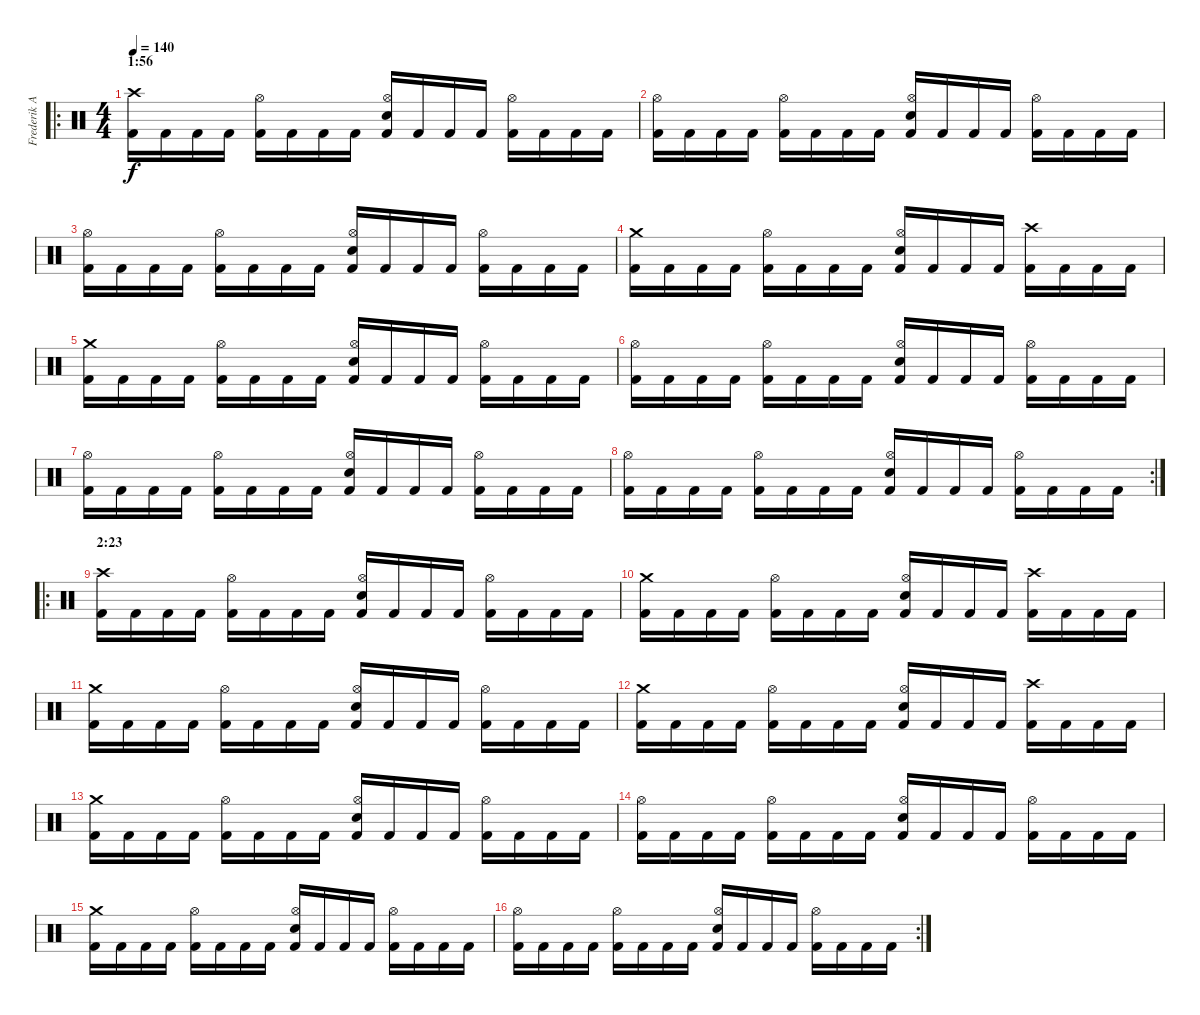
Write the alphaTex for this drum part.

\track ("Frederik Anderson" "Frederik A") {instrument percussion}
\staff {score}
\articulation defaults
\ro
\ts (4 4)
\section ("" "1:56")
\tempo 140
\clef neutral
\ks c
("Crash high (hit)" "Kick (hit) 2").16{dy f} "Kick (hit) 2".16 "Kick (hit) 2".16 "Kick (hit) 2".16 ("Hi-Hat (open)" "Kick (hit) 2").16 "Kick (hit) 2".16 "Kick (hit) 2".16 "Kick (hit) 2".16 ("Hi-Hat (open)" "Electric Snare (hit)" "Kick (hit) 2").16 "Kick (hit) 2".16 "Kick (hit) 2".16 "Kick (hit) 2".16 ("Hi-Hat (open)" "Kick (hit) 2").16 "Kick (hit) 2".16 "Kick (hit) 2".16 "Kick (hit) 2".16 |
("Hi-Hat (open)" "Kick (hit) 2").16 "Kick (hit) 2".16 "Kick (hit) 2".16 "Kick (hit) 2".16 ("Hi-Hat (open)" "Kick (hit) 2").16 "Kick (hit) 2".16 "Kick (hit) 2".16 "Kick (hit) 2".16 ("Hi-Hat (open)" "Electric Snare (hit)" "Kick (hit) 2").16 "Kick (hit) 2".16 "Kick (hit) 2".16 "Kick (hit) 2".16 ("Hi-Hat (open)" "Kick (hit) 2").16 "Kick (hit) 2".16 "Kick (hit) 2".16 "Kick (hit) 2".16 |
("Hi-Hat (open)" "Kick (hit) 2").16 "Kick (hit) 2".16 "Kick (hit) 2".16 "Kick (hit) 2".16 ("Hi-Hat (open)" "Kick (hit) 2").16 "Kick (hit) 2".16 "Kick (hit) 2".16 "Kick (hit) 2".16 ("Hi-Hat (open)" "Electric Snare (hit)" "Kick (hit) 2").16 "Kick (hit) 2".16 "Kick (hit) 2".16 "Kick (hit) 2".16 ("Hi-Hat (open)" "Kick (hit) 2").16 "Kick (hit) 2".16 "Kick (hit) 2".16 "Kick (hit) 2".16 |
("Crash medium (hit)" "Kick (hit) 2").16 "Kick (hit) 2".16 "Kick (hit) 2".16 "Kick (hit) 2".16 ("Hi-Hat (open)" "Kick (hit) 2").16 "Kick (hit) 2".16 "Kick (hit) 2".16 "Kick (hit) 2".16 ("Hi-Hat (open)" "Electric Snare (hit)" "Kick (hit) 2").16 "Kick (hit) 2".16 "Kick (hit) 2".16 "Kick (hit) 2".16 ("Crash high (hit)" "Kick (hit) 2").16 "Kick (hit) 2".16 "Kick (hit) 2".16 "Kick (hit) 2".16 |
("Crash medium (hit)" "Kick (hit) 2").16 "Kick (hit) 2".16 "Kick (hit) 2".16 "Kick (hit) 2".16 ("Hi-Hat (open)" "Kick (hit) 2").16 "Kick (hit) 2".16 "Kick (hit) 2".16 "Kick (hit) 2".16 ("Hi-Hat (open)" "Electric Snare (hit)" "Kick (hit) 2").16 "Kick (hit) 2".16 "Kick (hit) 2".16 "Kick (hit) 2".16 ("Hi-Hat (open)" "Kick (hit) 2").16 "Kick (hit) 2".16 "Kick (hit) 2".16 "Kick (hit) 2".16 |
("Hi-Hat (open)" "Kick (hit) 2").16 "Kick (hit) 2".16 "Kick (hit) 2".16 "Kick (hit) 2".16 ("Hi-Hat (open)" "Kick (hit) 2").16 "Kick (hit) 2".16 "Kick (hit) 2".16 "Kick (hit) 2".16 ("Hi-Hat (open)" "Electric Snare (hit)" "Kick (hit) 2").16 "Kick (hit) 2".16 "Kick (hit) 2".16 "Kick (hit) 2".16 ("Hi-Hat (open)" "Kick (hit) 2").16 "Kick (hit) 2".16 "Kick (hit) 2".16 "Kick (hit) 2".16 |
("Hi-Hat (open)" "Kick (hit) 2").16 "Kick (hit) 2".16 "Kick (hit) 2".16 "Kick (hit) 2".16 ("Hi-Hat (open)" "Kick (hit) 2").16 "Kick (hit) 2".16 "Kick (hit) 2".16 "Kick (hit) 2".16 ("Hi-Hat (open)" "Electric Snare (hit)" "Kick (hit) 2").16 "Kick (hit) 2".16 "Kick (hit) 2".16 "Kick (hit) 2".16 ("Hi-Hat (open)" "Kick (hit) 2").16 "Kick (hit) 2".16 "Kick (hit) 2".16 "Kick (hit) 2".16 |
\rc 2
("Hi-Hat (open)" "Kick (hit) 2").16 "Kick (hit) 2".16 "Kick (hit) 2".16 "Kick (hit) 2".16 ("Hi-Hat (open)" "Kick (hit) 2").16 "Kick (hit) 2".16 "Kick (hit) 2".16 "Kick (hit) 2".16 ("Hi-Hat (open)" "Electric Snare (hit)" "Kick (hit) 2").16 "Kick (hit) 2".16 "Kick (hit) 2".16 "Kick (hit) 2".16 ("Hi-Hat (open)" "Kick (hit) 2").16 "Kick (hit) 2".16 "Kick (hit) 2".16 "Kick (hit) 2".16 |
\ro
\section ("" "2:23")
("Crash high (hit)" "Kick (hit) 2").16 "Kick (hit) 2".16 "Kick (hit) 2".16 "Kick (hit) 2".16 ("Hi-Hat (open)" "Kick (hit) 2").16 "Kick (hit) 2".16 "Kick (hit) 2".16 "Kick (hit) 2".16 ("Hi-Hat (open)" "Electric Snare (hit)" "Kick (hit) 2").16 "Kick (hit) 2".16 "Kick (hit) 2".16 "Kick (hit) 2".16 ("Hi-Hat (open)" "Kick (hit) 2").16 "Kick (hit) 2".16 "Kick (hit) 2".16 "Kick (hit) 2".16 |
("Crash medium (hit)" "Kick (hit) 2").16 "Kick (hit) 2".16 "Kick (hit) 2".16 "Kick (hit) 2".16 ("Hi-Hat (open)" "Kick (hit) 2").16 "Kick (hit) 2".16 "Kick (hit) 2".16 "Kick (hit) 2".16 ("Hi-Hat (open)" "Electric Snare (hit)" "Kick (hit) 2").16 "Kick (hit) 2".16 "Kick (hit) 2".16 "Kick (hit) 2".16 ("Crash high (hit)" "Kick (hit) 2").16 "Kick (hit) 2".16 "Kick (hit) 2".16 "Kick (hit) 2".16 |
("Crash medium (hit)" "Kick (hit) 2").16 "Kick (hit) 2".16 "Kick (hit) 2".16 "Kick (hit) 2".16 ("Hi-Hat (open)" "Kick (hit) 2").16 "Kick (hit) 2".16 "Kick (hit) 2".16 "Kick (hit) 2".16 ("Hi-Hat (open)" "Electric Snare (hit)" "Kick (hit) 2").16 "Kick (hit) 2".16 "Kick (hit) 2".16 "Kick (hit) 2".16 ("Hi-Hat (open)" "Kick (hit) 2").16 "Kick (hit) 2".16 "Kick (hit) 2".16 "Kick (hit) 2".16 |
("Crash medium (hit)" "Kick (hit) 2").16 "Kick (hit) 2".16 "Kick (hit) 2".16 "Kick (hit) 2".16 ("Hi-Hat (open)" "Kick (hit) 2").16 "Kick (hit) 2".16 "Kick (hit) 2".16 "Kick (hit) 2".16 ("Hi-Hat (open)" "Electric Snare (hit)" "Kick (hit) 2").16 "Kick (hit) 2".16 "Kick (hit) 2".16 "Kick (hit) 2".16 ("Crash high (hit)" "Kick (hit) 2").16 "Kick (hit) 2".16 "Kick (hit) 2".16 "Kick (hit) 2".16 |
("Crash medium (hit)" "Kick (hit) 2").16 "Kick (hit) 2".16 "Kick (hit) 2".16 "Kick (hit) 2".16 ("Hi-Hat (open)" "Kick (hit) 2").16 "Kick (hit) 2".16 "Kick (hit) 2".16 "Kick (hit) 2".16 ("Hi-Hat (open)" "Electric Snare (hit)" "Kick (hit) 2").16 "Kick (hit) 2".16 "Kick (hit) 2".16 "Kick (hit) 2".16 ("Hi-Hat (open)" "Kick (hit) 2").16 "Kick (hit) 2".16 "Kick (hit) 2".16 "Kick (hit) 2".16 |
("Hi-Hat (open)" "Kick (hit) 2").16 "Kick (hit) 2".16 "Kick (hit) 2".16 "Kick (hit) 2".16 ("Hi-Hat (open)" "Kick (hit) 2").16 "Kick (hit) 2".16 "Kick (hit) 2".16 "Kick (hit) 2".16 ("Hi-Hat (open)" "Electric Snare (hit)" "Kick (hit) 2").16 "Kick (hit) 2".16 "Kick (hit) 2".16 "Kick (hit) 2".16 ("Hi-Hat (open)" "Kick (hit) 2").16 "Kick (hit) 2".16 "Kick (hit) 2".16 "Kick (hit) 2".16 |
("Crash medium (hit)" "Kick (hit) 2").16 "Kick (hit) 2".16 "Kick (hit) 2".16 "Kick (hit) 2".16 ("Hi-Hat (open)" "Kick (hit) 2").16 "Kick (hit) 2".16 "Kick (hit) 2".16 "Kick (hit) 2".16 ("Hi-Hat (open)" "Electric Snare (hit)" "Kick (hit) 2").16 "Kick (hit) 2".16 "Kick (hit) 2".16 "Kick (hit) 2".16 ("Hi-Hat (open)" "Kick (hit) 2").16 "Kick (hit) 2".16 "Kick (hit) 2".16 "Kick (hit) 2".16 |
\rc 2
("Hi-Hat (open)" "Kick (hit) 2").16 "Kick (hit) 2".16 "Kick (hit) 2".16 "Kick (hit) 2".16 ("Hi-Hat (open)" "Kick (hit) 2").16 "Kick (hit) 2".16 "Kick (hit) 2".16 "Kick (hit) 2".16 ("Hi-Hat (open)" "Electric Snare (hit)" "Kick (hit) 2").16 "Kick (hit) 2".16 "Kick (hit) 2".16 "Kick (hit) 2".16 ("Hi-Hat (open)" "Kick (hit) 2").16 "Kick (hit) 2".16 "Kick (hit) 2".16 "Kick (hit) 2".16
